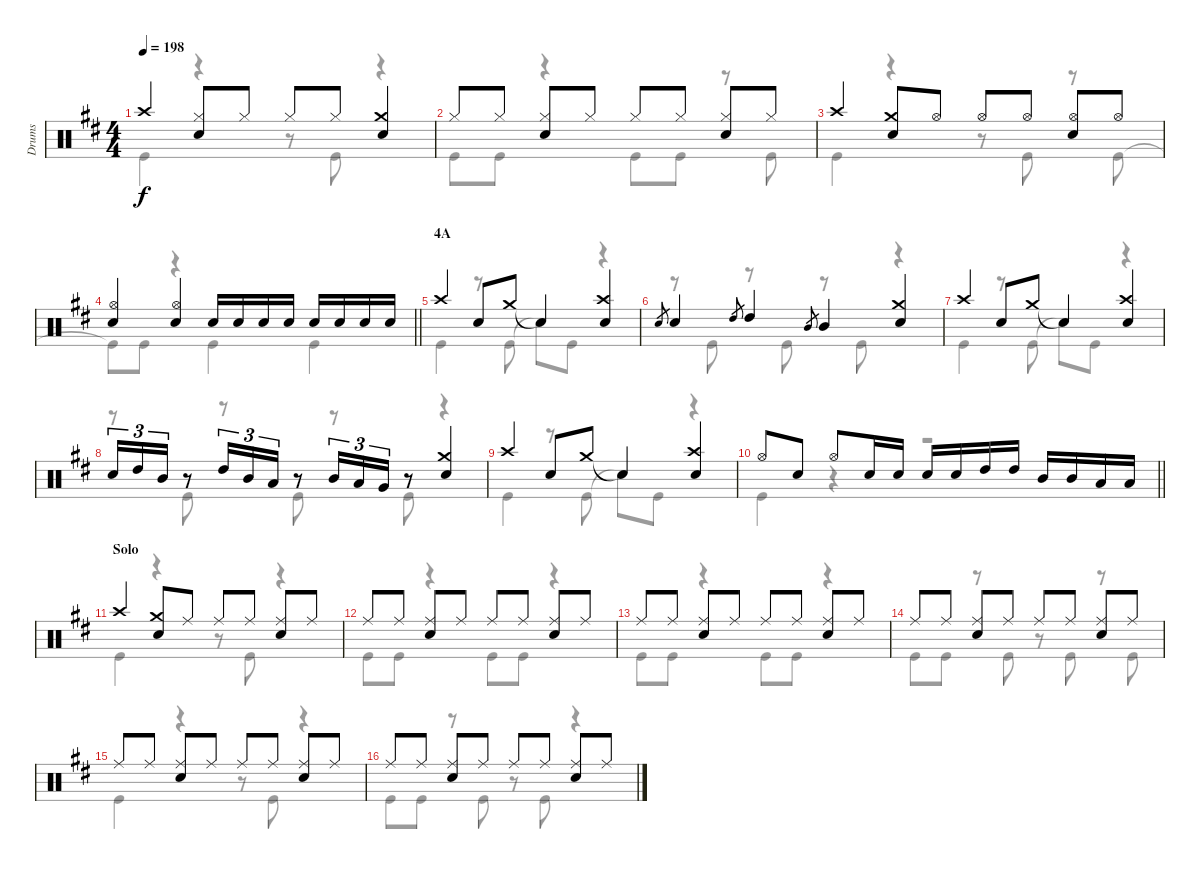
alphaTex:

\track ("Drums" "Drums") {instrument percussion}
\staff {score}
\articulation defaults
\voice
\ts (4 4)
\tempo 198
\clef neutral
\ks d "Crash high (hit)".4{dy f}
("Hi-Hat (closed)" "Snare (hit) 2").8 "Hi-Hat (closed)".8 "Hi-Hat (closed)".8 "Hi-Hat (closed)".8 ("Crash medium (hit)" "Snare (hit) 2").4 |
"Hi-Hat (closed)".8 "Hi-Hat (closed)".8 ("Hi-Hat (closed)" "Snare (hit) 2").8 "Hi-Hat (closed)".8 "Hi-Hat (closed)".8 "Hi-Hat (closed)".8 ("Hi-Hat (closed)" "Snare (hit) 2").8 "Hi-Hat (closed)".8 |
"Crash high (hit)".4 ("Crash medium (hit)" "Snare (hit) 2").8 "Hi-Hat (open)".8 "Hi-Hat (open)".8 "Hi-Hat (open)".8 ("Hi-Hat (open)" "Snare (hit) 2").8 "Hi-Hat (open)".8 |
\barLineRight lightlight
("Hi-Hat (open)" "Snare (hit) 2").4 ("Hi-Hat (open)" "Snare (hit) 2").4 "Snare (hit) 2".16 "Snare (hit) 2".16 "Snare (hit) 2".16 "Snare (hit) 2".16 "Snare (hit) 2".16 "Snare (hit) 2".16 "Snare (hit) 2".16 "Snare (hit) 2".16 |
\section ("" "4A")
"Crash high (hit)".4 "Snare (hit) 2".8 "Crash medium (hit)".8 "Snare (hit)"{t}.4 ("Crash high (hit)" "Snare (hit) 2").4 |
"Snare (hit) 2".8{gr} "Snare (hit) 2".4 "High Tom (hit)".8{gr} "High Tom (hit)".4 "Mid Tom (hit)".8{gr} "Mid Tom (hit)".4 ("Crash medium (hit)" "Snare (hit) 2").4 |
"Crash high (hit)".4 "Snare (hit) 2".8 "Crash medium (hit)".8 "Snare (hit)"{t}.4 ("Crash high (hit)" "Snare (hit) 2").4 |
"Snare (hit) 2".16{tu (3 2)} "High Tom (hit)".16{tu (3 2)} "Mid Tom (hit)".16{tu (3 2)} r.8 "High Tom (hit)".16{tu (3 2)} "Mid Tom (hit)".16{tu (3 2)} "Low Tom (hit)".16{tu (3 2)} r.8 "Mid Tom (hit)".16{tu (3 2)} "Low Tom (hit)".16{tu (3 2)} "Very Low Tom (hit)".16{tu (3 2)} r.8 ("Crash medium (hit)" "Snare (hit) 2").4 |
"Crash high (hit)".4 "Snare (hit) 2".8 "Crash medium (hit)".8 "Snare (hit)"{t}.4 ("Crash high (hit)" "Snare (hit) 2").4 |
\barLineRight lightlight "Hi-Hat (open)".8 "Snare (hit) 2".8 "Hi-Hat (open)".8 "Snare (hit) 2".16 "Snare (hit) 2".16 "Snare (hit) 2".16 "Snare (hit) 2".16 "High Tom (hit)".16 "High Tom (hit)".16 "Mid Tom (hit)".16 "Mid Tom (hit)".16 "Low Tom (hit)".16 "Low Tom (hit)".16
|
\section ("" "Solo")
"Crash high (hit)".4 ("Crash medium (hit)" "Snare (hit) 2").8 "Ride (middle)".8 "Ride (middle)".8 "Ride (middle)".8 ("Ride (middle)" "Snare (hit) 2").8 "Ride (middle)".8 |
"Ride (middle)".8 "Ride (middle)".8 ("Ride (middle)" "Snare (hit) 2").8 "Ride (middle)".8 "Ride (middle)".8 "Ride (middle)".8 ("Ride (middle)" "Snare (hit) 2").8 "Ride (middle)".8 |
"Ride (middle)".8 "Ride (middle)".8 ("Ride (middle)" "Snare (hit) 2").8 "Ride (middle)".8 "Ride (middle)".8 "Ride (middle)".8 ("Ride (middle)" "Snare (hit) 2").8 "Ride (middle)".8 |
"Ride (middle)".8 "Ride (middle)".8 ("Ride (middle)" "Snare (hit) 2").8 "Ride (middle)".8 "Ride (middle)".8 "Ride (middle)".8 ("Ride (middle)" "Snare (hit) 2").8 "Ride (middle)".8 |
"Ride (middle)".8 "Ride (middle)".8 ("Ride (middle)" "Snare (hit) 2").8 "Ride (middle)".8 "Ride (middle)".8 "Ride (middle)".8 ("Ride (middle)" "Snare (hit) 2").8 "Ride (middle)".8 |
"Ride (middle)".8 "Ride (middle)".8 ("Ride (middle)" "Snare (hit) 2").8 "Ride (middle)".8 "Ride (middle)".8 "Ride (middle)".8 ("Ride (middle)" "Snare (hit) 2").8 "Ride (middle)".8
\voice
\clef neutral
\ottava regular
\simile none
\ks d "Kick (hit)".4{dy f}
r.4 r.8 "Kick (hit)".8 r.4 |
"Kick (hit)".8 "Kick (hit)".8 r.4 "Kick (hit)".8 "Kick (hit)".8 r.8 "Kick (hit)".8 |
"Kick (hit)".4 r.4 r.8 "Kick (hit)".8 r.8 "Kick (hit)".8 |
\barLineRight lightlight "Kick (hit)"{t}.8 "Kick (hit)".8
r.4 "Kick (hit)".4 "Kick (hit)".4 |
"Kick (hit)".4 r.8 "Kick (hit)".8 "Snare (hit)"{t}.8 "Kick (hit)".8 r.4 |
r.8 "Kick (hit)".8 r.8 "Kick (hit)".8 r.8 "Kick (hit)".8 r.4 |
"Kick (hit)".4 r.8 "Kick (hit)".8 "Snare (hit)"{t}.8 "Kick (hit)".8 r.4 |
r.8 "Kick (hit)".8 r.8 "Kick (hit)".8 r.8 "Kick (hit)".8 r.4 |
"Kick (hit)".4 r.8 "Kick (hit)".8 "Snare (hit)"{t}.8 "Kick (hit)".8 r.4 |
\barLineRight lightlight "Kick (hit)".4
r.4 r.2 |
"Kick (hit)".4 r.4 r.8 "Kick (hit)".8 r.4 |
"Kick (hit)".8 "Kick (hit)".8 r.4 "Kick (hit)".8 "Kick (hit)".8 r.4 |
"Kick (hit)".8 "Kick (hit)".8 r.4 "Kick (hit)".8 "Kick (hit)".8 r.4 |
"Kick (hit)".8 "Kick (hit)".8 r.8 "Kick (hit)".8 r.8 "Kick (hit)".8 r.8 "Kick (hit)".8 |
"Kick (hit)".4 r.4 r.8 "Kick (hit)".8 r.4 |
"Kick (hit)".8 "Kick (hit)".8 r.8 "Kick (hit)".8 r.8 "Kick (hit)".8 r.4
